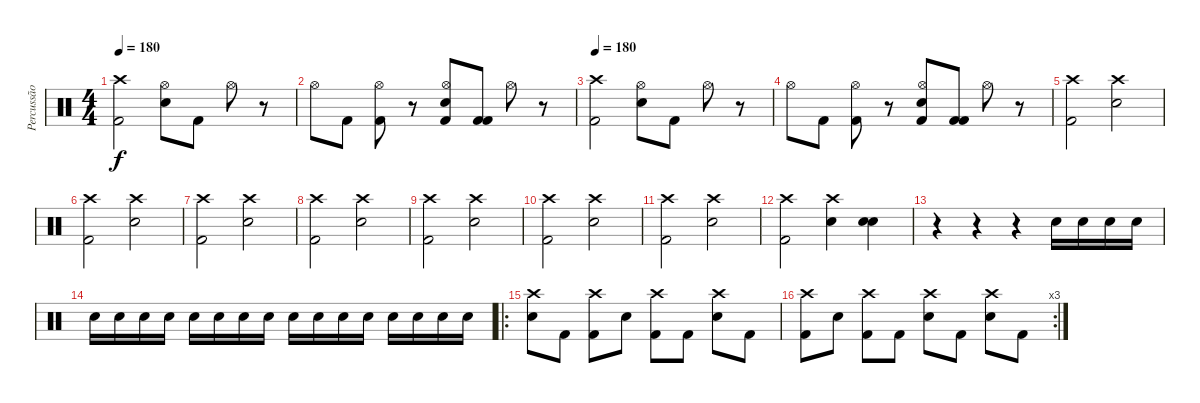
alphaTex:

\track ("Percussão" "Percussão") {instrument percussion}
\staff {score}
\articulation defaults
\ts (4 4)
\tempo 180
\clef neutral
\ks c
("Crash high (hit)" "Kick (hit) 2").2{dy f} ("Hi-Hat (open)" "Electric Snare (hit)").8 "Kick (hit) 2".8 "Hi-Hat (open)".8 r.8 |
"Hi-Hat (open)".8 "Kick (hit) 2".8 ("Hi-Hat (open)" "Kick (hit) 2").8 r.8 ("Hi-Hat (open)" "Electric Snare (hit)" "Kick (hit) 2").8 ("Kick (hit) 2" "Kick (hit) 2").8 "Hi-Hat (open)".8 r.8 |
\tempo 180
("Crash high (hit)" "Kick (hit) 2").2 ("Hi-Hat (open)" "Electric Snare (hit)").8 "Kick (hit) 2".8 "Hi-Hat (open)".8 r.8 |
"Hi-Hat (open)".8 "Kick (hit) 2".8 ("Hi-Hat (open)" "Kick (hit) 2").8 r.8 ("Hi-Hat (open)" "Electric Snare (hit)" "Kick (hit) 2").8 ("Kick (hit) 2" "Kick (hit) 2").8 "Hi-Hat (open)".8 r.8 |
("Crash high (hit)" "Kick (hit) 2").2 ("Crash high (hit)" "Electric Snare (hit)").2 |
("Crash high (hit)" "Kick (hit) 2").2 ("Crash high (hit)" "Electric Snare (hit)").2 |
("Crash high (hit)" "Kick (hit) 2").2 ("Crash high (hit)" "Electric Snare (hit)").2 |
("Crash high (hit)" "Kick (hit) 2").2 ("Crash high (hit)" "Electric Snare (hit)").2 |
("Crash high (hit)" "Kick (hit) 2").2 ("Crash high (hit)" "Electric Snare (hit)").2 |
("Crash high (hit)" "Kick (hit) 2").2 ("Crash high (hit)" "Electric Snare (hit)").2 |
("Crash high (hit)" "Kick (hit) 2").2 ("Crash high (hit)" "Electric Snare (hit)").2 |
("Crash high (hit)" "Kick (hit) 2").2 ("Crash high (hit)" "Electric Snare (hit)").4 ("Electric Snare (hit)" "Electric Snare (hit)").4 |
r.4 r.4 r.4 "Electric Snare (hit)".16 "Electric Snare (hit)".16 "Electric Snare (hit)".16 "Electric Snare (hit)".16 |
"Electric Snare (hit)".16 "Electric Snare (hit)".16 "Electric Snare (hit)".16 "Electric Snare (hit)".16 "Electric Snare (hit)".16 "Electric Snare (hit)".16 "Electric Snare (hit)".16 "Electric Snare (hit)".16 "Electric Snare (hit)".16 "Electric Snare (hit)".16 "Electric Snare (hit)".16 "Electric Snare (hit)".16 "Electric Snare (hit)".16 "Electric Snare (hit)".16 "Electric Snare (hit)".16 "Electric Snare (hit)".16 |
\ro
("Crash high (hit)" "Electric Snare (hit)").8 "Kick (hit) 2".8 ("Crash high (hit)" "Kick (hit) 2").8 "Electric Snare (hit)".8 ("Crash high (hit)" "Kick (hit) 2").8 "Kick (hit) 2".8 ("Crash high (hit)" "Electric Snare (hit)").8 "Kick (hit) 2".8 |
\rc 3
("Crash high (hit)" "Kick (hit) 2").8 "Electric Snare (hit)".8 ("Crash high (hit)" "Kick (hit) 2").8 "Kick (hit) 2".8 ("Crash high (hit)" "Electric Snare (hit)").8 "Kick (hit) 2".8 ("Crash high (hit)" "Electric Snare (hit)").8 "Kick (hit) 2".8
